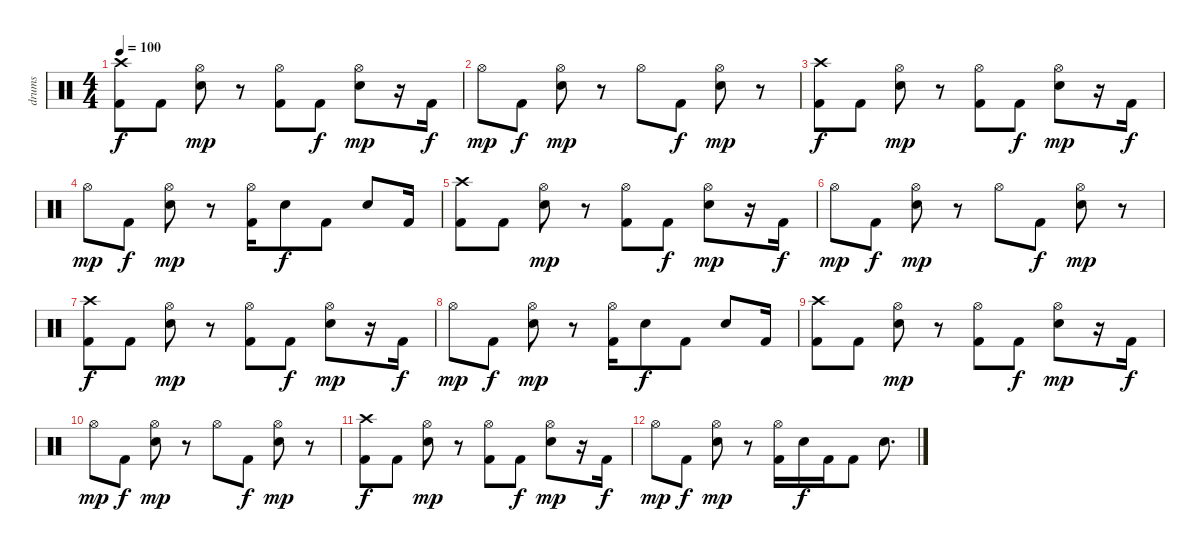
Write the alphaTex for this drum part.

\track ("drums" "drums") {instrument percussion}
\staff {score}
\articulation defaults
\ts (4 4)
\tempo 100
\clef neutral
\ks c
("Crash high (hit)" "Kick (hit) 2").8{dy f} "Kick (hit) 2".8 ("Electric Snare (hit)" "Hi-Hat (open)").8{dy mp} r.8 ("Hi-Hat (open)" "Kick (hit) 2").8 "Kick (hit) 2".8{dy f} ("Electric Snare (hit)" "Hi-Hat (open)").8{dy mp} r.16 "Kick (hit) 2".16{dy f} |
"Hi-Hat (open)".8{dy mp} "Kick (hit) 2".8{dy f} ("Electric Snare (hit)" "Hi-Hat (open)").8{dy mp} r.8 "Hi-Hat (open)".8 "Kick (hit) 2".8{dy f} ("Electric Snare (hit)" "Hi-Hat (open)").8{dy mp} r.8 |
("Crash high (hit)" "Kick (hit) 2").8{dy f} "Kick (hit) 2".8 ("Electric Snare (hit)" "Hi-Hat (open)").8{dy mp} r.8 ("Hi-Hat (open)" "Kick (hit) 2").8 "Kick (hit) 2".8{dy f} ("Electric Snare (hit)" "Hi-Hat (open)").8{dy mp} r.16 "Kick (hit) 2".16{dy f} |
"Hi-Hat (open)".8{dy mp} "Kick (hit) 2".8{dy f} ("Electric Snare (hit)" "Hi-Hat (open)").8{dy mp} r.8 ("Hi-Hat (open)" "Kick (hit) 2").16 "Electric Snare (hit)".8{dy f} "Kick (hit) 2".8 "Electric Snare (hit)".8 "Kick (hit) 2".16 |
("Crash high (hit)" "Kick (hit) 2").8 "Kick (hit) 2".8 ("Electric Snare (hit)" "Hi-Hat (open)").8{dy mp} r.8 ("Hi-Hat (open)" "Kick (hit) 2").8 "Kick (hit) 2".8{dy f} ("Electric Snare (hit)" "Hi-Hat (open)").8{dy mp} r.16 "Kick (hit) 2".16{dy f} |
"Hi-Hat (open)".8{dy mp} "Kick (hit) 2".8{dy f} ("Electric Snare (hit)" "Hi-Hat (open)").8{dy mp} r.8 "Hi-Hat (open)".8 "Kick (hit) 2".8{dy f} ("Electric Snare (hit)" "Hi-Hat (open)").8{dy mp} r.8 |
("Crash high (hit)" "Kick (hit) 2").8{dy f} "Kick (hit) 2".8 ("Electric Snare (hit)" "Hi-Hat (open)").8{dy mp} r.8 ("Hi-Hat (open)" "Kick (hit) 2").8 "Kick (hit) 2".8{dy f} ("Electric Snare (hit)" "Hi-Hat (open)").8{dy mp} r.16 "Kick (hit) 2".16{dy f} |
"Hi-Hat (open)".8{dy mp} "Kick (hit) 2".8{dy f} ("Electric Snare (hit)" "Hi-Hat (open)").8{dy mp} r.8 ("Hi-Hat (open)" "Kick (hit) 2").16 "Electric Snare (hit)".8{dy f} "Kick (hit) 2".8 "Electric Snare (hit)".8 "Kick (hit) 2".16 |
("Crash high (hit)" "Kick (hit) 2").8 "Kick (hit) 2".8 ("Electric Snare (hit)" "Hi-Hat (open)").8{dy mp} r.8 ("Hi-Hat (open)" "Kick (hit) 2").8 "Kick (hit) 2".8{dy f} ("Electric Snare (hit)" "Hi-Hat (open)").8{dy mp} r.16 "Kick (hit) 2".16{dy f} |
"Hi-Hat (open)".8{dy mp} "Kick (hit) 2".8{dy f} ("Electric Snare (hit)" "Hi-Hat (open)").8{dy mp} r.8 "Hi-Hat (open)".8 "Kick (hit) 2".8{dy f} ("Electric Snare (hit)" "Hi-Hat (open)").8{dy mp} r.8 |
("Crash high (hit)" "Kick (hit) 2").8{dy f} "Kick (hit) 2".8 ("Electric Snare (hit)" "Hi-Hat (open)").8{dy mp} r.8 ("Hi-Hat (open)" "Kick (hit) 2").8 "Kick (hit) 2".8{dy f} ("Electric Snare (hit)" "Hi-Hat (open)").8{dy mp} r.16 "Kick (hit) 2".16{dy f} |
"Hi-Hat (open)".8{dy mp} "Kick (hit) 2".8{dy f} ("Electric Snare (hit)" "Hi-Hat (open)").8{dy mp} r.8 ("Hi-Hat (open)" "Kick (hit) 2").16 "Electric Snare (hit)".16{dy f} "Kick (hit) 2".16 "Kick (hit) 2".8 "Electric Snare (hit)".8{d}
